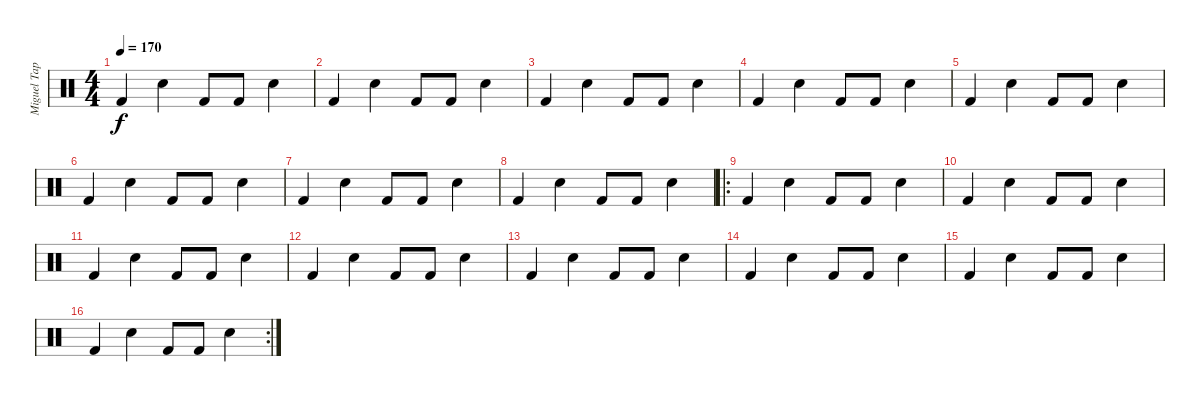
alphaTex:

\track ("Miguel Tapia" "Miguel Tap") {instrument percussion}
\staff {score}
\articulation defaults
\ts (4 4)
\tempo 170
\clef neutral
\ks c "Kick (hit) 2".4{dy f} "Snare (hit) 2".4 "Kick (hit) 2".8 "Kick (hit) 2".8 "Snare (hit) 2".4
|
"Kick (hit) 2".4 "Snare (hit) 2".4 "Kick (hit) 2".8 "Kick (hit) 2".8 "Snare (hit) 2".4 |
"Kick (hit) 2".4 "Snare (hit) 2".4 "Kick (hit) 2".8 "Kick (hit) 2".8 "Snare (hit) 2".4 |
"Kick (hit) 2".4 "Snare (hit) 2".4 "Kick (hit) 2".8 "Kick (hit) 2".8 "Snare (hit) 2".4 |
"Kick (hit) 2".4 "Snare (hit) 2".4 "Kick (hit) 2".8 "Kick (hit) 2".8 "Snare (hit) 2".4 |
"Kick (hit) 2".4 "Snare (hit) 2".4 "Kick (hit) 2".8 "Kick (hit) 2".8 "Snare (hit) 2".4 |
"Kick (hit) 2".4 "Snare (hit) 2".4 "Kick (hit) 2".8 "Kick (hit) 2".8 "Snare (hit) 2".4 |
"Kick (hit) 2".4 "Snare (hit) 2".4 "Kick (hit) 2".8 "Kick (hit) 2".8 "Snare (hit) 2".4 |
\ro "Kick (hit) 2".4 "Snare (hit) 2".4 "Kick (hit) 2".8 "Kick (hit) 2".8 "Snare (hit) 2".4
|
"Kick (hit) 2".4 "Snare (hit) 2".4 "Kick (hit) 2".8 "Kick (hit) 2".8 "Snare (hit) 2".4 |
"Kick (hit) 2".4 "Snare (hit) 2".4 "Kick (hit) 2".8 "Kick (hit) 2".8 "Snare (hit) 2".4 |
"Kick (hit) 2".4 "Snare (hit) 2".4 "Kick (hit) 2".8 "Kick (hit) 2".8 "Snare (hit) 2".4 |
"Kick (hit) 2".4 "Snare (hit) 2".4 "Kick (hit) 2".8 "Kick (hit) 2".8 "Snare (hit) 2".4 |
"Kick (hit) 2".4 "Snare (hit) 2".4 "Kick (hit) 2".8 "Kick (hit) 2".8 "Snare (hit) 2".4 |
"Kick (hit) 2".4 "Snare (hit) 2".4 "Kick (hit) 2".8 "Kick (hit) 2".8 "Snare (hit) 2".4 |
\rc 2 "Kick (hit) 2".4 "Snare (hit) 2".4 "Kick (hit) 2".8 "Kick (hit) 2".8 "Snare (hit) 2".4
